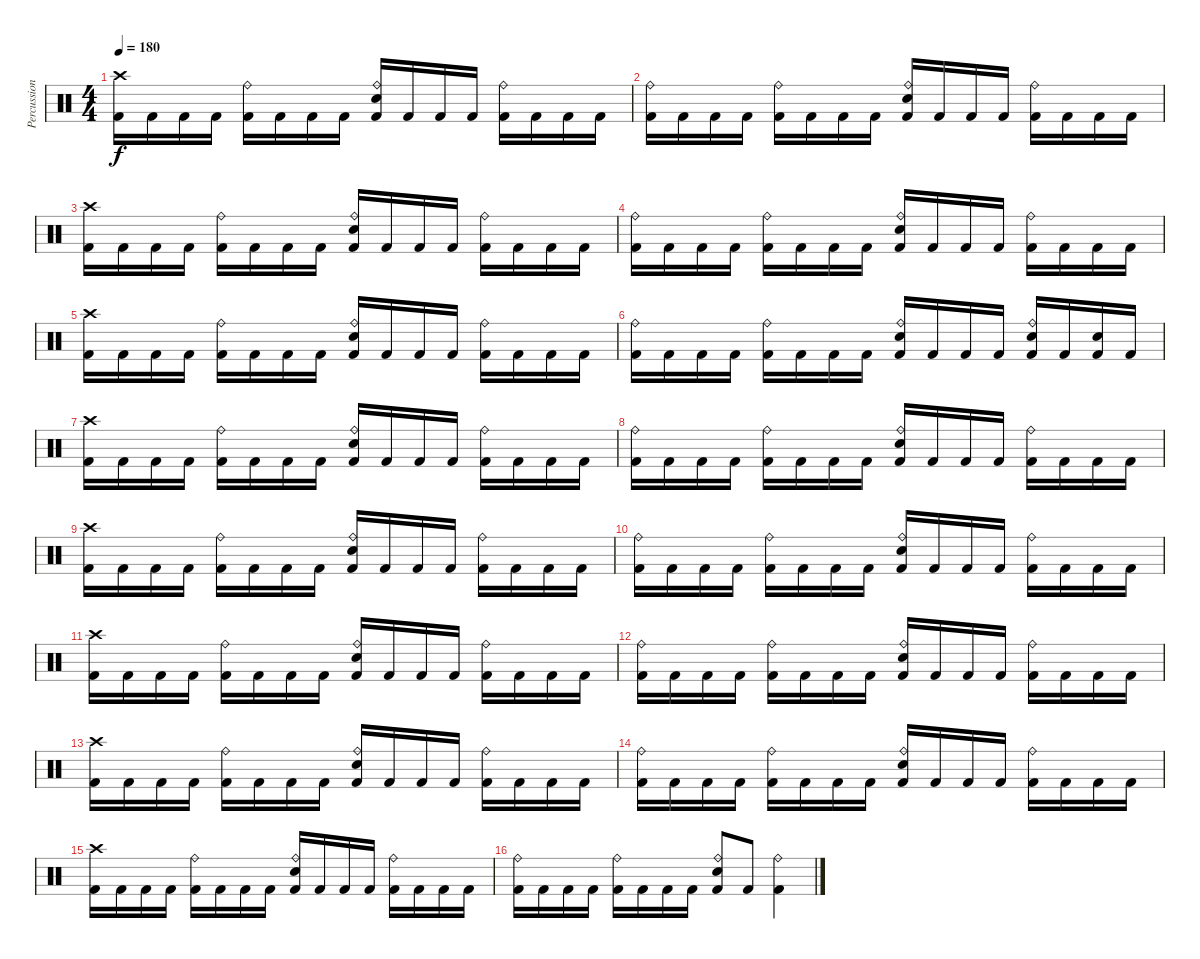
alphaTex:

\track ("Percussion" "Percussion") {instrument percussion}
\staff {score}
\articulation defaults
\ts (4 4)
\tempo 180
\clef neutral
\ks c
("Crash high (hit)" "Kick (hit) 2").16{dy f} "Kick (hit) 2".16 "Kick (hit) 2".16 "Kick (hit) 2".16 ("Ride (bell)" "Kick (hit) 2").16 "Kick (hit) 2".16 "Kick (hit) 2".16 "Kick (hit) 2".16 ("Ride (bell)" "Snare (hit) 2" "Kick (hit) 2").16 "Kick (hit) 2".16 "Kick (hit) 2".16 "Kick (hit) 2".16 ("Ride (bell)" "Kick (hit) 2").16 "Kick (hit) 2".16 "Kick (hit) 2".16 "Kick (hit) 2".16 |
("Ride (bell)" "Kick (hit) 2").16 "Kick (hit) 2".16 "Kick (hit) 2".16 "Kick (hit) 2".16 ("Ride (bell)" "Kick (hit) 2").16 "Kick (hit) 2".16 "Kick (hit) 2".16 "Kick (hit) 2".16 ("Ride (bell)" "Snare (hit) 2" "Kick (hit) 2").16 "Kick (hit) 2".16 "Kick (hit) 2".16 "Kick (hit) 2".16 ("Ride (bell)" "Kick (hit) 2").16 "Kick (hit) 2".16 "Kick (hit) 2".16 "Kick (hit) 2".16 |
("Crash high (hit)" "Kick (hit) 2").16 "Kick (hit) 2".16 "Kick (hit) 2".16 "Kick (hit) 2".16 ("Ride (bell)" "Kick (hit) 2").16 "Kick (hit) 2".16 "Kick (hit) 2".16 "Kick (hit) 2".16 ("Ride (bell)" "Snare (hit) 2" "Kick (hit) 2").16 "Kick (hit) 2".16 "Kick (hit) 2".16 "Kick (hit) 2".16 ("Ride (bell)" "Kick (hit) 2").16 "Kick (hit) 2".16 "Kick (hit) 2".16 "Kick (hit) 2".16 |
("Ride (bell)" "Kick (hit) 2").16 "Kick (hit) 2".16 "Kick (hit) 2".16 "Kick (hit) 2".16 ("Ride (bell)" "Kick (hit) 2").16 "Kick (hit) 2".16 "Kick (hit) 2".16 "Kick (hit) 2".16 ("Ride (bell)" "Snare (hit) 2" "Kick (hit) 2").16 "Kick (hit) 2".16 "Kick (hit) 2".16 "Kick (hit) 2".16 ("Ride (bell)" "Kick (hit) 2").16 "Kick (hit) 2".16 "Kick (hit) 2".16 "Kick (hit) 2".16 |
("Crash high (hit)" "Kick (hit) 2").16 "Kick (hit) 2".16 "Kick (hit) 2".16 "Kick (hit) 2".16 ("Ride (bell)" "Kick (hit) 2").16 "Kick (hit) 2".16 "Kick (hit) 2".16 "Kick (hit) 2".16 ("Ride (bell)" "Snare (hit) 2" "Kick (hit) 2").16 "Kick (hit) 2".16 "Kick (hit) 2".16 "Kick (hit) 2".16 ("Ride (bell)" "Kick (hit) 2").16 "Kick (hit) 2".16 "Kick (hit) 2".16 "Kick (hit) 2".16 |
("Ride (bell)" "Kick (hit) 2").16 "Kick (hit) 2".16 "Kick (hit) 2".16 "Kick (hit) 2".16 ("Ride (bell)" "Kick (hit) 2").16 "Kick (hit) 2".16 "Kick (hit) 2".16 "Kick (hit) 2".16 ("Ride (bell)" "Snare (hit) 2" "Kick (hit) 2").16 "Kick (hit) 2".16 "Kick (hit) 2".16 "Kick (hit) 2".16 ("Ride (bell)" "Snare (hit) 2" "Kick (hit) 2").16 "Kick (hit) 2".16 ("Snare (hit) 2" "Kick (hit) 2").16 "Kick (hit) 2".16 |
("Crash high (hit)" "Kick (hit) 2").16 "Kick (hit) 2".16 "Kick (hit) 2".16 "Kick (hit) 2".16 ("Ride (bell)" "Kick (hit) 2").16 "Kick (hit) 2".16 "Kick (hit) 2".16 "Kick (hit) 2".16 ("Ride (bell)" "Snare (hit) 2" "Kick (hit) 2").16 "Kick (hit) 2".16 "Kick (hit) 2".16 "Kick (hit) 2".16 ("Ride (bell)" "Kick (hit) 2").16 "Kick (hit) 2".16 "Kick (hit) 2".16 "Kick (hit) 2".16 |
("Ride (bell)" "Kick (hit) 2").16 "Kick (hit) 2".16 "Kick (hit) 2".16 "Kick (hit) 2".16 ("Ride (bell)" "Kick (hit) 2").16 "Kick (hit) 2".16 "Kick (hit) 2".16 "Kick (hit) 2".16 ("Ride (bell)" "Snare (hit) 2" "Kick (hit) 2").16 "Kick (hit) 2".16 "Kick (hit) 2".16 "Kick (hit) 2".16 ("Ride (bell)" "Kick (hit) 2").16 "Kick (hit) 2".16 "Kick (hit) 2".16 "Kick (hit) 2".16 |
("Crash high (hit)" "Kick (hit) 2").16 "Kick (hit) 2".16 "Kick (hit) 2".16 "Kick (hit) 2".16 ("Ride (bell)" "Kick (hit) 2").16 "Kick (hit) 2".16 "Kick (hit) 2".16 "Kick (hit) 2".16 ("Ride (bell)" "Snare (hit) 2" "Kick (hit) 2").16 "Kick (hit) 2".16 "Kick (hit) 2".16 "Kick (hit) 2".16 ("Ride (bell)" "Kick (hit) 2").16 "Kick (hit) 2".16 "Kick (hit) 2".16 "Kick (hit) 2".16 |
("Ride (bell)" "Kick (hit) 2").16 "Kick (hit) 2".16 "Kick (hit) 2".16 "Kick (hit) 2".16 ("Ride (bell)" "Kick (hit) 2").16 "Kick (hit) 2".16 "Kick (hit) 2".16 "Kick (hit) 2".16 ("Ride (bell)" "Snare (hit) 2" "Kick (hit) 2").16 "Kick (hit) 2".16 "Kick (hit) 2".16 "Kick (hit) 2".16 ("Ride (bell)" "Kick (hit) 2").16 "Kick (hit) 2".16 "Kick (hit) 2".16 "Kick (hit) 2".16 |
("Crash high (hit)" "Kick (hit) 2").16 "Kick (hit) 2".16 "Kick (hit) 2".16 "Kick (hit) 2".16 ("Ride (bell)" "Kick (hit) 2").16 "Kick (hit) 2".16 "Kick (hit) 2".16 "Kick (hit) 2".16 ("Ride (bell)" "Snare (hit) 2" "Kick (hit) 2").16 "Kick (hit) 2".16 "Kick (hit) 2".16 "Kick (hit) 2".16 ("Ride (bell)" "Kick (hit) 2").16 "Kick (hit) 2".16 "Kick (hit) 2".16 "Kick (hit) 2".16 |
("Ride (bell)" "Kick (hit) 2").16 "Kick (hit) 2".16 "Kick (hit) 2".16 "Kick (hit) 2".16 ("Ride (bell)" "Kick (hit) 2").16 "Kick (hit) 2".16 "Kick (hit) 2".16 "Kick (hit) 2".16 ("Ride (bell)" "Snare (hit) 2" "Kick (hit) 2").16 "Kick (hit) 2".16 "Kick (hit) 2".16 "Kick (hit) 2".16 ("Ride (bell)" "Kick (hit) 2").16 "Kick (hit) 2".16 "Kick (hit) 2".16 "Kick (hit) 2".16 |
("Crash high (hit)" "Kick (hit) 2").16 "Kick (hit) 2".16 "Kick (hit) 2".16 "Kick (hit) 2".16 ("Ride (bell)" "Kick (hit) 2").16 "Kick (hit) 2".16 "Kick (hit) 2".16 "Kick (hit) 2".16 ("Ride (bell)" "Snare (hit) 2" "Kick (hit) 2").16 "Kick (hit) 2".16 "Kick (hit) 2".16 "Kick (hit) 2".16 ("Ride (bell)" "Kick (hit) 2").16 "Kick (hit) 2".16 "Kick (hit) 2".16 "Kick (hit) 2".16 |
("Ride (bell)" "Kick (hit) 2").16 "Kick (hit) 2".16 "Kick (hit) 2".16 "Kick (hit) 2".16 ("Ride (bell)" "Kick (hit) 2").16 "Kick (hit) 2".16 "Kick (hit) 2".16 "Kick (hit) 2".16 ("Ride (bell)" "Snare (hit) 2" "Kick (hit) 2").16 "Kick (hit) 2".16 "Kick (hit) 2".16 "Kick (hit) 2".16 ("Ride (bell)" "Kick (hit) 2").16 "Kick (hit) 2".16 "Kick (hit) 2".16 "Kick (hit) 2".16 |
("Crash high (hit)" "Kick (hit) 2").16 "Kick (hit) 2".16 "Kick (hit) 2".16 "Kick (hit) 2".16 ("Ride (bell)" "Kick (hit) 2").16 "Kick (hit) 2".16 "Kick (hit) 2".16 "Kick (hit) 2".16 ("Ride (bell)" "Snare (hit) 2" "Kick (hit) 2").16 "Kick (hit) 2".16 "Kick (hit) 2".16 "Kick (hit) 2".16 ("Ride (bell)" "Kick (hit) 2").16 "Kick (hit) 2".16 "Kick (hit) 2".16 "Kick (hit) 2".16 |
("Ride (bell)" "Kick (hit) 2").16 "Kick (hit) 2".16 "Kick (hit) 2".16 "Kick (hit) 2".16 ("Ride (bell)" "Kick (hit) 2").16 "Kick (hit) 2".16 "Kick (hit) 2".16 "Kick (hit) 2".16 ("Ride (bell)" "Snare (hit) 2" "Kick (hit) 2").8 "Kick (hit) 2".8 ("Ride (bell)" "Kick (hit) 2").4
